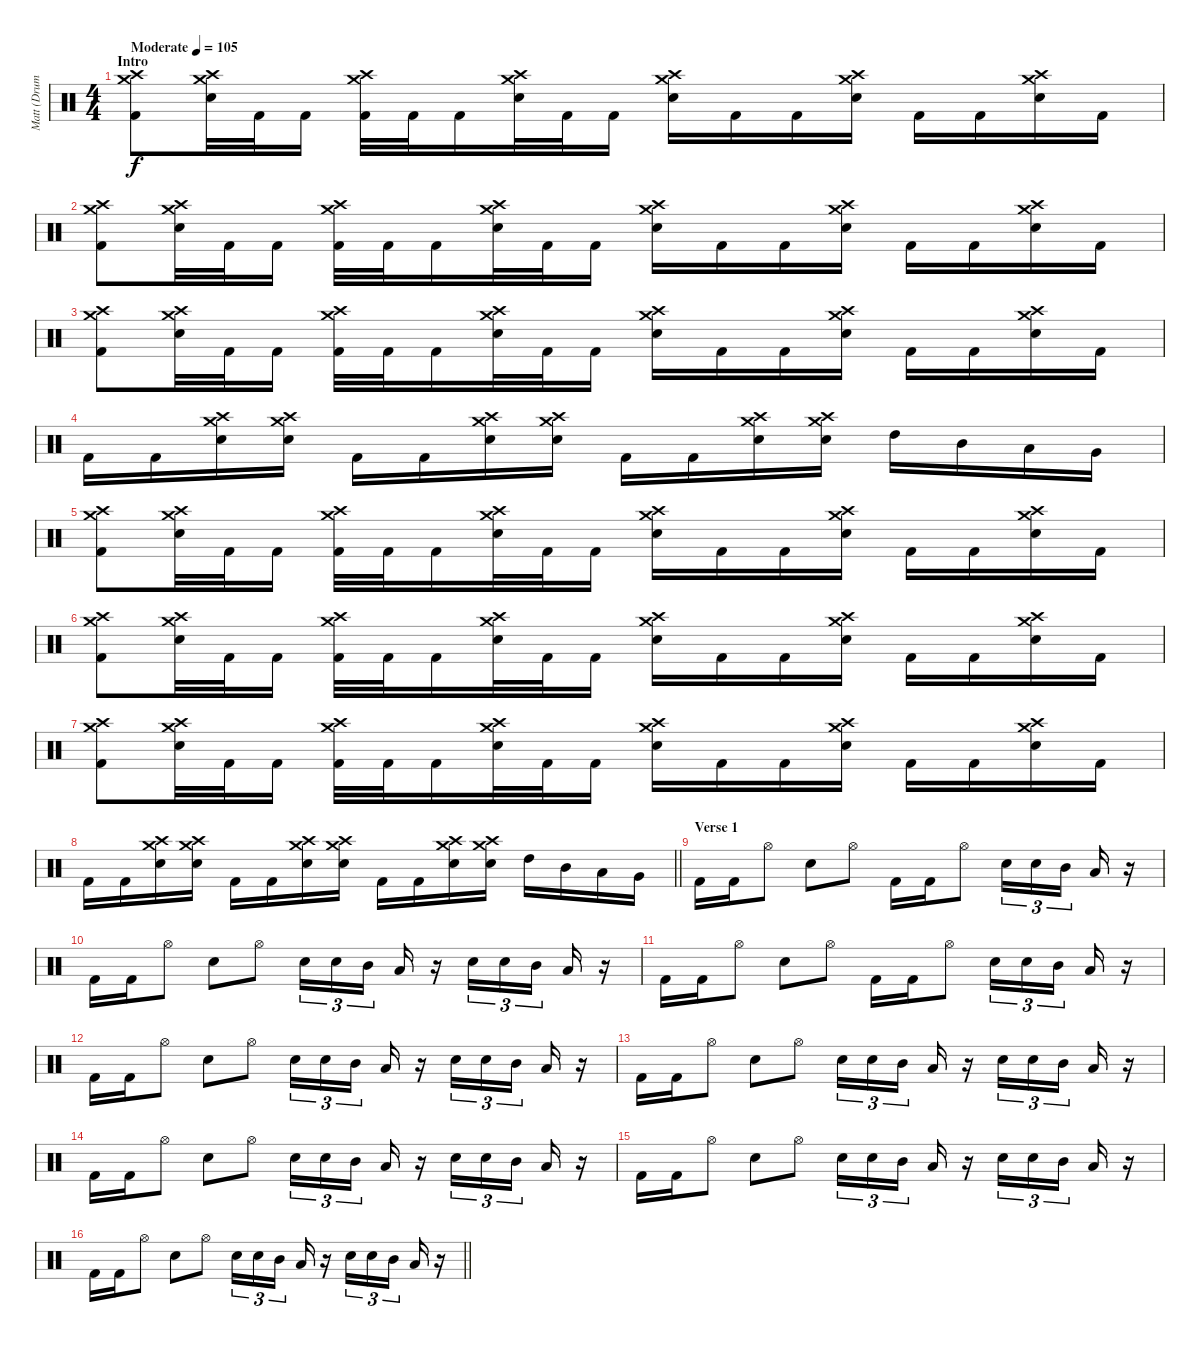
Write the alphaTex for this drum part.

\track ("Matt (Drums)" "Matt (Drum") {instrument percussion}
\staff {score}
\articulation defaults
\ts (4 4)
\section ("" "Intro")
\tempo (105 "Moderate")
\clef neutral
\ks c
("Crash medium (hit)" "Crash high (hit)" "Kick (hit) 2").8{dy f} ("Crash medium (hit)" "Crash high (hit)" "Electric Snare (hit)").32 "Kick (hit) 2".32 "Kick (hit) 2".16 ("Crash medium (hit)" "Crash high (hit)" "Kick (hit) 2").32 "Kick (hit) 2".32 "Kick (hit) 2".16 ("Crash medium (hit)" "Crash high (hit)" "Electric Snare (hit)").32 "Kick (hit) 2".32 "Kick (hit) 2".16 ("Crash medium (hit)" "Crash high (hit)" "Electric Snare (hit)").16 "Kick (hit) 2".16 "Kick (hit) 2".16 ("Crash medium (hit)" "Crash high (hit)" "Electric Snare (hit)").16 "Kick (hit) 2".16 "Kick (hit) 2".16 ("Crash medium (hit)" "Crash high (hit)" "Electric Snare (hit)").16 "Kick (hit) 2".16 |
("Crash medium (hit)" "Crash high (hit)" "Kick (hit) 2").8 ("Crash medium (hit)" "Crash high (hit)" "Electric Snare (hit)").32 "Kick (hit) 2".32 "Kick (hit) 2".16 ("Crash medium (hit)" "Crash high (hit)" "Kick (hit) 2").32 "Kick (hit) 2".32 "Kick (hit) 2".16 ("Crash medium (hit)" "Crash high (hit)" "Electric Snare (hit)").32 "Kick (hit) 2".32 "Kick (hit) 2".16 ("Crash medium (hit)" "Crash high (hit)" "Electric Snare (hit)").16 "Kick (hit) 2".16 "Kick (hit) 2".16 ("Crash medium (hit)" "Crash high (hit)" "Electric Snare (hit)").16 "Kick (hit) 2".16 "Kick (hit) 2".16 ("Crash medium (hit)" "Crash high (hit)" "Electric Snare (hit)").16 "Kick (hit) 2".16 |
("Crash medium (hit)" "Crash high (hit)" "Kick (hit) 2").8 ("Crash medium (hit)" "Crash high (hit)" "Electric Snare (hit)").32 "Kick (hit) 2".32 "Kick (hit) 2".16 ("Crash medium (hit)" "Crash high (hit)" "Kick (hit) 2").32 "Kick (hit) 2".32 "Kick (hit) 2".16 ("Crash medium (hit)" "Crash high (hit)" "Electric Snare (hit)").32 "Kick (hit) 2".32 "Kick (hit) 2".16 ("Crash medium (hit)" "Crash high (hit)" "Electric Snare (hit)").16 "Kick (hit) 2".16 "Kick (hit) 2".16 ("Crash medium (hit)" "Crash high (hit)" "Electric Snare (hit)").16 "Kick (hit) 2".16 "Kick (hit) 2".16 ("Crash medium (hit)" "Crash high (hit)" "Electric Snare (hit)").16 "Kick (hit) 2".16 |
"Kick (hit) 2".16 "Kick (hit) 2".16 ("Crash medium (hit)" "Crash high (hit)" "Electric Snare (hit)").16 ("Crash medium (hit)" "Crash high (hit)" "Electric Snare (hit)").16 "Kick (hit) 2".16 "Kick (hit) 2".16 ("Crash medium (hit)" "Crash high (hit)" "Electric Snare (hit)").16 ("Crash medium (hit)" "Crash high (hit)" "Electric Snare (hit)").16 "Kick (hit) 2".16 "Kick (hit) 2".16 ("Crash medium (hit)" "Crash high (hit)" "Electric Snare (hit)").16 ("Crash medium (hit)" "Crash high (hit)" "Electric Snare (hit)").16 "High Tom (hit)".16 "Mid Tom (hit)".16 "Low Tom (hit)".16 "Very Low Tom (hit)".16 |
("Crash medium (hit)" "Crash high (hit)" "Kick (hit) 2").8 ("Crash medium (hit)" "Crash high (hit)" "Electric Snare (hit)").32 "Kick (hit) 2".32 "Kick (hit) 2".16 ("Crash medium (hit)" "Crash high (hit)" "Kick (hit) 2").32 "Kick (hit) 2".32 "Kick (hit) 2".16 ("Crash medium (hit)" "Crash high (hit)" "Electric Snare (hit)").32 "Kick (hit) 2".32 "Kick (hit) 2".16 ("Crash medium (hit)" "Crash high (hit)" "Electric Snare (hit)").16 "Kick (hit) 2".16 "Kick (hit) 2".16 ("Crash medium (hit)" "Crash high (hit)" "Electric Snare (hit)").16 "Kick (hit) 2".16 "Kick (hit) 2".16 ("Crash medium (hit)" "Crash high (hit)" "Electric Snare (hit)").16 "Kick (hit) 2".16 |
("Crash medium (hit)" "Crash high (hit)" "Kick (hit) 2").8 ("Crash medium (hit)" "Crash high (hit)" "Electric Snare (hit)").32 "Kick (hit) 2".32 "Kick (hit) 2".16 ("Crash medium (hit)" "Crash high (hit)" "Kick (hit) 2").32 "Kick (hit) 2".32 "Kick (hit) 2".16 ("Crash medium (hit)" "Crash high (hit)" "Electric Snare (hit)").32 "Kick (hit) 2".32 "Kick (hit) 2".16 ("Crash medium (hit)" "Crash high (hit)" "Electric Snare (hit)").16 "Kick (hit) 2".16 "Kick (hit) 2".16 ("Crash medium (hit)" "Crash high (hit)" "Electric Snare (hit)").16 "Kick (hit) 2".16 "Kick (hit) 2".16 ("Crash medium (hit)" "Crash high (hit)" "Electric Snare (hit)").16 "Kick (hit) 2".16 |
("Crash medium (hit)" "Crash high (hit)" "Kick (hit) 2").8 ("Crash medium (hit)" "Crash high (hit)" "Electric Snare (hit)").32 "Kick (hit) 2".32 "Kick (hit) 2".16 ("Crash medium (hit)" "Crash high (hit)" "Kick (hit) 2").32 "Kick (hit) 2".32 "Kick (hit) 2".16 ("Crash medium (hit)" "Crash high (hit)" "Electric Snare (hit)").32 "Kick (hit) 2".32 "Kick (hit) 2".16 ("Crash medium (hit)" "Crash high (hit)" "Electric Snare (hit)").16 "Kick (hit) 2".16 "Kick (hit) 2".16 ("Crash medium (hit)" "Crash high (hit)" "Electric Snare (hit)").16 "Kick (hit) 2".16 "Kick (hit) 2".16 ("Crash medium (hit)" "Crash high (hit)" "Electric Snare (hit)").16 "Kick (hit) 2".16 |
\barLineRight lightlight "Kick (hit) 2".16 "Kick (hit) 2".16
("Crash medium (hit)" "Crash high (hit)" "Electric Snare (hit)").16 ("Crash medium (hit)" "Crash high (hit)" "Electric Snare (hit)").16 "Kick (hit) 2".16 "Kick (hit) 2".16 ("Crash medium (hit)" "Crash high (hit)" "Electric Snare (hit)").16 ("Crash medium (hit)" "Crash high (hit)" "Electric Snare (hit)").16 "Kick (hit) 2".16 "Kick (hit) 2".16 ("Crash medium (hit)" "Crash high (hit)" "Electric Snare (hit)").16 ("Crash medium (hit)" "Crash high (hit)" "Electric Snare (hit)").16 "High Tom (hit)".16 "Mid Tom (hit)".16 "Low Tom (hit)".16 "Very Low Tom (hit)".16 |
\section ("" "Verse 1")
"Kick (hit) 2".16 "Kick (hit) 2".16 "Hi-Hat (open)".8 "Electric Snare (hit)".8 "Hi-Hat (open)".8 "Kick (hit) 2".16 "Kick (hit) 2".16 "Hi-Hat (open)".8 "Electric Snare (hit)".16{tu (3 2)} "Electric Snare (hit)".16{tu (3 2)} "Mid Tom (hit)".16{tu (3 2) beam splitsecondary} "Low Tom (hit)".16 r.16 |
"Kick (hit) 2".16 "Kick (hit) 2".16 "Hi-Hat (open)".8 "Electric Snare (hit)".8 "Hi-Hat (open)".8 "Electric Snare (hit)".16{tu (3 2)} "Electric Snare (hit)".16{tu (3 2)} "Mid Tom (hit)".16{tu (3 2) beam splitsecondary} "Low Tom (hit)".16 r.16 "Electric Snare (hit)".16{tu (3 2)} "Electric Snare (hit)".16{tu (3 2)} "Mid Tom (hit)".16{tu (3 2) beam splitsecondary} "Low Tom (hit)".16 r.16 |
"Kick (hit) 2".16 "Kick (hit) 2".16 "Hi-Hat (open)".8 "Electric Snare (hit)".8 "Hi-Hat (open)".8 "Kick (hit) 2".16 "Kick (hit) 2".16 "Hi-Hat (open)".8 "Electric Snare (hit)".16{tu (3 2)} "Electric Snare (hit)".16{tu (3 2)} "Mid Tom (hit)".16{tu (3 2) beam splitsecondary} "Low Tom (hit)".16 r.16 |
"Kick (hit) 2".16 "Kick (hit) 2".16 "Hi-Hat (open)".8 "Electric Snare (hit)".8 "Hi-Hat (open)".8 "Electric Snare (hit)".16{tu (3 2)} "Electric Snare (hit)".16{tu (3 2)} "Mid Tom (hit)".16{tu (3 2) beam splitsecondary} "Low Tom (hit)".16 r.16 "Electric Snare (hit)".16{tu (3 2)} "Electric Snare (hit)".16{tu (3 2)} "Mid Tom (hit)".16{tu (3 2) beam splitsecondary} "Low Tom (hit)".16 r.16 |
"Kick (hit) 2".16 "Kick (hit) 2".16 "Hi-Hat (open)".8 "Electric Snare (hit)".8 "Hi-Hat (open)".8 "Electric Snare (hit)".16{tu (3 2)} "Electric Snare (hit)".16{tu (3 2)} "Mid Tom (hit)".16{tu (3 2) beam splitsecondary} "Low Tom (hit)".16 r.16 "Electric Snare (hit)".16{tu (3 2)} "Electric Snare (hit)".16{tu (3 2)} "Mid Tom (hit)".16{tu (3 2) beam splitsecondary} "Low Tom (hit)".16 r.16 |
"Kick (hit) 2".16 "Kick (hit) 2".16 "Hi-Hat (open)".8 "Electric Snare (hit)".8 "Hi-Hat (open)".8 "Electric Snare (hit)".16{tu (3 2)} "Electric Snare (hit)".16{tu (3 2)} "Mid Tom (hit)".16{tu (3 2) beam splitsecondary} "Low Tom (hit)".16 r.16 "Electric Snare (hit)".16{tu (3 2)} "Electric Snare (hit)".16{tu (3 2)} "Mid Tom (hit)".16{tu (3 2) beam splitsecondary} "Low Tom (hit)".16 r.16 |
"Kick (hit) 2".16 "Kick (hit) 2".16 "Hi-Hat (open)".8 "Electric Snare (hit)".8 "Hi-Hat (open)".8 "Electric Snare (hit)".16{tu (3 2)} "Electric Snare (hit)".16{tu (3 2)} "Mid Tom (hit)".16{tu (3 2) beam splitsecondary} "Low Tom (hit)".16 r.16 "Electric Snare (hit)".16{tu (3 2)} "Electric Snare (hit)".16{tu (3 2)} "Mid Tom (hit)".16{tu (3 2) beam splitsecondary} "Low Tom (hit)".16 r.16 |
\barLineRight lightlight "Kick (hit) 2".16 "Kick (hit) 2".16 "Hi-Hat (open)".8 "Electric Snare (hit)".8 "Hi-Hat (open)".8 "Electric Snare (hit)".16{tu (3 2)} "Electric Snare (hit)".16{tu (3 2)} "Mid Tom (hit)".16{tu (3 2) beam splitsecondary} "Low Tom (hit)".16
r.16 "Electric Snare (hit)".16{tu (3 2)} "Electric Snare (hit)".16{tu (3 2)} "Mid Tom (hit)".16{tu (3 2) beam splitsecondary} "Low Tom (hit)".16 r.16
